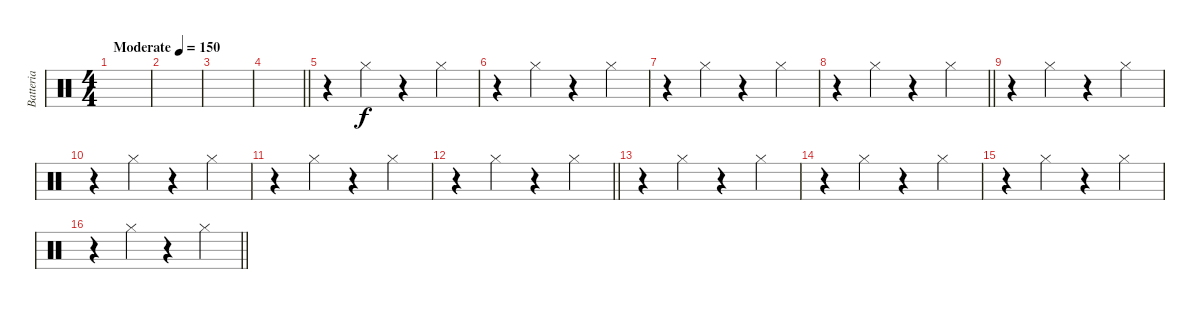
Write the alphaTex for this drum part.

\track ("Batteria" "Batteria") {instrument percussion}
\staff {score}
\articulation defaults
\ts (4 4)
\tempo (150 "Moderate")
\clef neutral
\ks c
|
|
|
\barLineRight lightlight
|
r.4 "Hi-Hat (closed)".4 r.4 "Hi-Hat (closed)".4 |
r.4 "Hi-Hat (closed)".4 r.4 "Hi-Hat (closed)".4 |
r.4 "Hi-Hat (closed)".4 r.4 "Hi-Hat (closed)".4 |
\barLineRight lightlight
r.4 "Hi-Hat (closed)".4 r.4 "Hi-Hat (closed)".4 |
r.4 "Hi-Hat (closed)".4 r.4 "Hi-Hat (closed)".4 |
r.4 "Hi-Hat (closed)".4 r.4 "Hi-Hat (closed)".4 |
r.4 "Hi-Hat (closed)".4 r.4 "Hi-Hat (closed)".4 |
\barLineRight lightlight
r.4 "Hi-Hat (closed)".4 r.4 "Hi-Hat (closed)".4 |
r.4 "Hi-Hat (closed)".4 r.4 "Hi-Hat (closed)".4 |
r.4 "Hi-Hat (closed)".4 r.4 "Hi-Hat (closed)".4 |
r.4 "Hi-Hat (closed)".4 r.4 "Hi-Hat (closed)".4 |
\barLineRight lightlight
r.4 "Hi-Hat (closed)".4 r.4 "Hi-Hat (closed)".4
